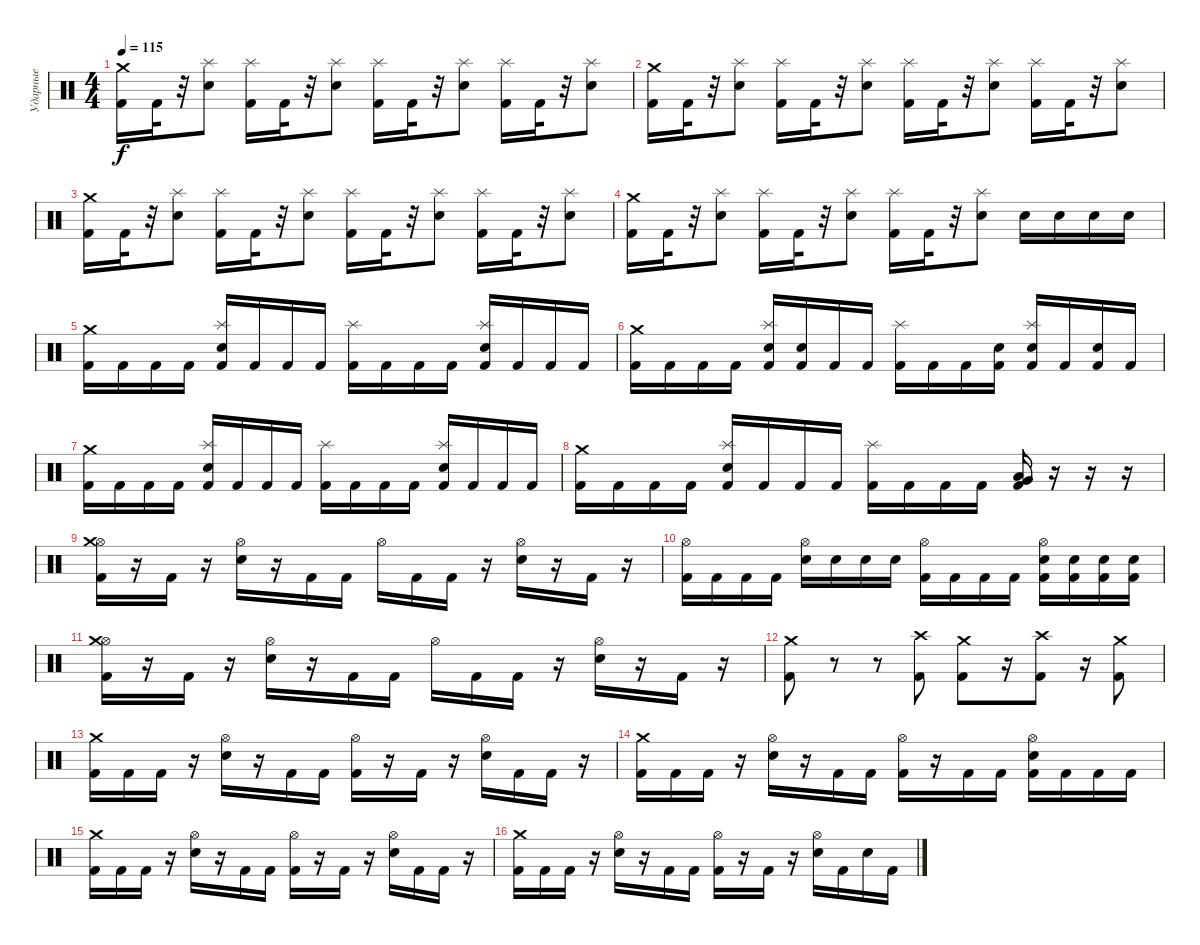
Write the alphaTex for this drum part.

\track ("Ударные" "Ударные") {instrument percussion}
\staff {score}
\articulation defaults
\ts (4 4)
\tempo 115
\clef neutral
\ks c
("Crash medium (hit)" "Kick (hit) 2").16{dy f} "Kick (hit) 2".32 r.32 ("Splash (hit)" "Electric Snare (hit)").8 ("Splash (hit)" "Kick (hit) 2").16 "Kick (hit) 2".32 r.32 ("Splash (hit)" "Electric Snare (hit)").8 ("Splash (hit)" "Kick (hit) 2").16 "Kick (hit) 2".32 r.32 ("Splash (hit)" "Electric Snare (hit)").8 ("Splash (hit)" "Kick (hit) 2").16 "Kick (hit) 2".32 r.32 ("Splash (hit)" "Electric Snare (hit)").8 |
("Crash medium (hit)" "Kick (hit) 2").16 "Kick (hit) 2".32 r.32 ("Splash (hit)" "Electric Snare (hit)").8 ("Splash (hit)" "Kick (hit) 2").16 "Kick (hit) 2".32 r.32 ("Splash (hit)" "Electric Snare (hit)").8 ("Splash (hit)" "Kick (hit) 2").16 "Kick (hit) 2".32 r.32 ("Splash (hit)" "Electric Snare (hit)").8 ("Splash (hit)" "Kick (hit) 2").16 "Kick (hit) 2".32 r.32 ("Splash (hit)" "Electric Snare (hit)").8 |
("Crash medium (hit)" "Kick (hit) 2").16 "Kick (hit) 2".32 r.32 ("Splash (hit)" "Electric Snare (hit)").8 ("Splash (hit)" "Kick (hit) 2").16 "Kick (hit) 2".32 r.32 ("Splash (hit)" "Electric Snare (hit)").8 ("Splash (hit)" "Kick (hit) 2").16 "Kick (hit) 2".32 r.32 ("Splash (hit)" "Electric Snare (hit)").8 ("Splash (hit)" "Kick (hit) 2").16 "Kick (hit) 2".32 r.32 ("Splash (hit)" "Electric Snare (hit)").8 |
("Crash medium (hit)" "Kick (hit) 2").16 "Kick (hit) 2".32 r.32 ("Splash (hit)" "Electric Snare (hit)").8 ("Splash (hit)" "Kick (hit) 2").16 "Kick (hit) 2".32 r.32 ("Splash (hit)" "Electric Snare (hit)").8 ("Splash (hit)" "Kick (hit) 2").16 "Kick (hit) 2".32 r.32 ("Splash (hit)" "Electric Snare (hit)").8 "Electric Snare (hit)".16 "Electric Snare (hit)".16 "Electric Snare (hit)".16 "Electric Snare (hit)".16 |
("Crash medium (hit)" "Kick (hit) 2").16 "Kick (hit) 2".16 "Kick (hit) 2".16 "Kick (hit) 2".16 ("Splash (hit)" "Electric Snare (hit)" "Kick (hit) 2").16 "Kick (hit) 2".16 "Kick (hit) 2".16 "Kick (hit) 2".16 ("Splash (hit)" "Kick (hit) 2").16 "Kick (hit) 2".16 "Kick (hit) 2".16 "Kick (hit) 2".16 ("Electric Snare (hit)" "Splash (hit)" "Kick (hit) 2").16 "Kick (hit) 2".16 "Kick (hit) 2".16 "Kick (hit) 2".16 |
("Crash medium (hit)" "Kick (hit) 2").16 "Kick (hit) 2".16 "Kick (hit) 2".16 "Kick (hit) 2".16 ("Splash (hit)" "Electric Snare (hit)" "Kick (hit) 2").16 ("Electric Snare (hit)" "Kick (hit) 2").16 "Kick (hit) 2".16 "Kick (hit) 2".16 ("Splash (hit)" "Kick (hit) 2").16 "Kick (hit) 2".16 "Kick (hit) 2".16 ("Electric Snare (hit)" "Kick (hit) 2").16 ("Electric Snare (hit)" "Splash (hit)" "Kick (hit) 2").16 "Kick (hit) 2".16 ("Electric Snare (hit)" "Kick (hit) 2").16 "Kick (hit) 2".16 |
("Crash medium (hit)" "Kick (hit) 2").16 "Kick (hit) 2".16 "Kick (hit) 2".16 "Kick (hit) 2".16 ("Splash (hit)" "Electric Snare (hit)" "Kick (hit) 2").16 "Kick (hit) 2".16 "Kick (hit) 2".16 "Kick (hit) 2".16 ("Splash (hit)" "Kick (hit) 2").16 "Kick (hit) 2".16 "Kick (hit) 2".16 "Kick (hit) 2".16 ("Electric Snare (hit)" "Splash (hit)" "Kick (hit) 2").16 "Kick (hit) 2".16 "Kick (hit) 2".16 "Kick (hit) 2".16 |
("Crash medium (hit)" "Kick (hit) 2").16 "Kick (hit) 2".16 "Kick (hit) 2".16 "Kick (hit) 2".16 ("Splash (hit)" "Electric Snare (hit)" "Kick (hit) 2").16 "Kick (hit) 2".16 "Kick (hit) 2".16 "Kick (hit) 2".16 ("Splash (hit)" "Kick (hit) 2").16 "Kick (hit) 2".16 "Kick (hit) 2".16 "Kick (hit) 2".16 ("Kick (hit) 2" "Very Low Tom (hit)" "Low Floor Tom (hit)").16 r.16 r.16 r.16 |
("Hi-Hat (open)" "Crash medium (hit)" "Kick (hit) 2").16 r.16 "Kick (hit) 2".16 r.16 ("Hi-Hat (open)" "Electric Snare (hit)").16 r.16 "Kick (hit) 2".16 "Kick (hit) 2".16 "Hi-Hat (open)".16 "Kick (hit) 2".16 "Kick (hit) 2".16 r.16 ("Hi-Hat (open)" "Electric Snare (hit)").16 r.16 "Kick (hit) 2".16 r.16 |
("Hi-Hat (open)" "Kick (hit) 2").16 "Kick (hit) 2".16 "Kick (hit) 2".16 "Kick (hit) 2".16 ("Hi-Hat (open)" "Electric Snare (hit)").16 "Electric Snare (hit)".16 "Electric Snare (hit)".16 "Electric Snare (hit)".16 ("Hi-Hat (open)" "Kick (hit) 2").16 "Kick (hit) 2".16 "Kick (hit) 2".16 "Kick (hit) 2".16 ("Hi-Hat (open)" "Kick (hit) 2" "Electric Snare (hit)").16 ("Kick (hit) 2" "Electric Snare (hit)").16 ("Kick (hit) 2" "Electric Snare (hit)").16 ("Kick (hit) 2" "Electric Snare (hit)").16 |
("Hi-Hat (open)" "Crash medium (hit)" "Kick (hit) 2").16 r.16 "Kick (hit) 2".16 r.16 ("Hi-Hat (open)" "Electric Snare (hit)").16 r.16 "Kick (hit) 2".16 "Kick (hit) 2".16 "Hi-Hat (open)".16 "Kick (hit) 2".16 "Kick (hit) 2".16 r.16 ("Hi-Hat (open)" "Electric Snare (hit)").16 r.16 "Kick (hit) 2".16 r.16 |
("Crash medium (hit)" "Kick (hit) 2").8 r.8 r.8 ("Crash high (hit)" "Kick (hit) 2").8 ("Crash medium (hit)" "Kick (hit) 2").8 r.16 ("Crash high (hit)" "Kick (hit) 2").8 r.16 ("Crash medium (hit)" "Kick (hit) 2").8 |
("Crash medium (hit)" "Kick (hit) 2").16 "Kick (hit) 2".16 "Kick (hit) 2".16 r.16 ("Hi-Hat (open)" "Electric Snare (hit)").16 r.16 "Kick (hit) 2".16 "Kick (hit) 2".16 ("Hi-Hat (open)" "Kick (hit) 2").16 r.16 "Kick (hit) 2".16 r.16 ("Hi-Hat (open)" "Electric Snare (hit)").16 "Kick (hit) 2".16 "Kick (hit) 2".16 r.16 |
("Crash medium (hit)" "Kick (hit) 2").16 "Kick (hit) 2".16 "Kick (hit) 2".16 r.16 ("Hi-Hat (open)" "Electric Snare (hit)").16 r.16 "Kick (hit) 2".16 "Kick (hit) 2".16 ("Hi-Hat (open)" "Kick (hit) 2").16 r.16 "Kick (hit) 2".16 "Kick (hit) 2".16 ("Hi-Hat (open)" "Kick (hit) 2" "Electric Snare (hit)").16 "Kick (hit) 2".16 "Kick (hit) 2".16 "Kick (hit) 2".16 |
("Crash medium (hit)" "Kick (hit) 2").16 "Kick (hit) 2".16 "Kick (hit) 2".16 r.16 ("Hi-Hat (open)" "Electric Snare (hit)").16 r.16 "Kick (hit) 2".16 "Kick (hit) 2".16 ("Hi-Hat (open)" "Kick (hit) 2").16 r.16 "Kick (hit) 2".16 r.16 ("Hi-Hat (open)" "Electric Snare (hit)").16 "Kick (hit) 2".16 "Kick (hit) 2".16 r.16 |
("Crash medium (hit)" "Kick (hit) 2").16 "Kick (hit) 2".16 "Kick (hit) 2".16 r.16 ("Hi-Hat (open)" "Electric Snare (hit)").16 r.16 "Kick (hit) 2".16 "Kick (hit) 2".16 ("Hi-Hat (open)" "Kick (hit) 2").16 r.16 "Kick (hit) 2".16 r.16 ("Hi-Hat (open)" "Electric Snare (hit)").16 "Kick (hit) 2".16 "Electric Snare (hit)".16 "Kick (hit) 2".16
